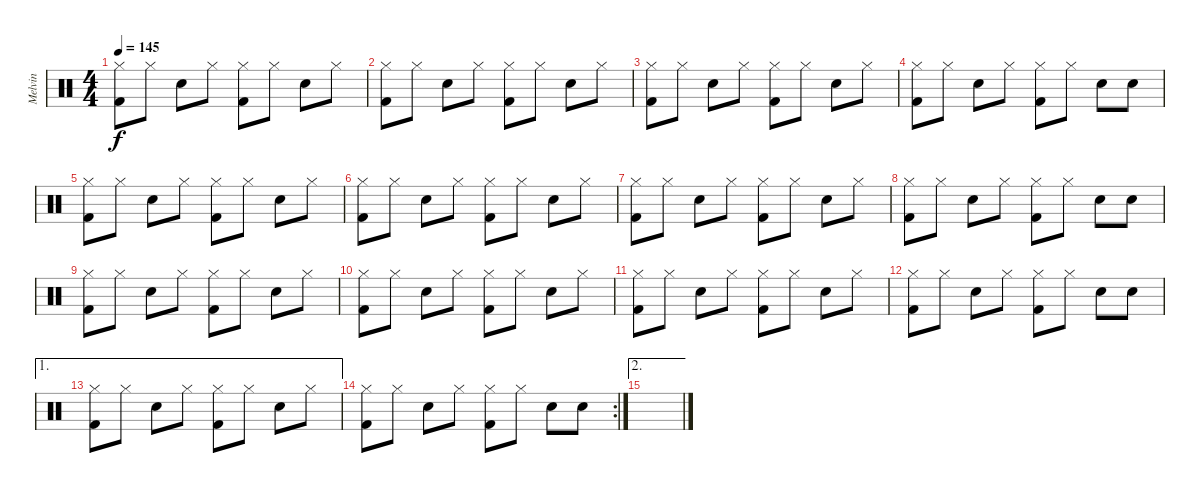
\track ("Melvin" "Melvin") {instrument percussion}
\staff {score}
\articulation defaults
\ts (4 4)
\tempo 145
\clef neutral
\ks c
("Hi-Hat (closed)" "Kick (hit) 2").8{dy f} "Hi-Hat (closed)".8 "Snare (hit) 2".8 "Hi-Hat (closed)".8 ("Hi-Hat (closed)" "Kick (hit) 2").8 "Hi-Hat (closed)".8 "Snare (hit) 2".8 "Hi-Hat (closed)".8 |
("Hi-Hat (closed)" "Kick (hit) 2").8 "Hi-Hat (closed)".8 "Snare (hit) 2".8 "Hi-Hat (closed)".8 ("Hi-Hat (closed)" "Kick (hit) 2").8 "Hi-Hat (closed)".8 "Snare (hit) 2".8 "Hi-Hat (closed)".8 |
("Hi-Hat (closed)" "Kick (hit) 2").8 "Hi-Hat (closed)".8 "Snare (hit) 2".8 "Hi-Hat (closed)".8 ("Hi-Hat (closed)" "Kick (hit) 2").8 "Hi-Hat (closed)".8 "Snare (hit) 2".8 "Hi-Hat (closed)".8 |
("Hi-Hat (closed)" "Kick (hit) 2").8 "Hi-Hat (closed)".8 "Snare (hit) 2".8 "Hi-Hat (closed)".8 ("Hi-Hat (closed)" "Kick (hit) 2").8 "Hi-Hat (closed)".8 "Snare (hit) 2".8 "Snare (hit) 2".8 |
("Hi-Hat (closed)" "Kick (hit) 2").8 "Hi-Hat (closed)".8 "Snare (hit) 2".8 "Hi-Hat (closed)".8 ("Hi-Hat (closed)" "Kick (hit) 2").8 "Hi-Hat (closed)".8 "Snare (hit) 2".8 "Hi-Hat (closed)".8 |
("Hi-Hat (closed)" "Kick (hit) 2").8 "Hi-Hat (closed)".8 "Snare (hit) 2".8 "Hi-Hat (closed)".8 ("Hi-Hat (closed)" "Kick (hit) 2").8 "Hi-Hat (closed)".8 "Snare (hit) 2".8 "Hi-Hat (closed)".8 |
("Hi-Hat (closed)" "Kick (hit) 2").8 "Hi-Hat (closed)".8 "Snare (hit) 2".8 "Hi-Hat (closed)".8 ("Hi-Hat (closed)" "Kick (hit) 2").8 "Hi-Hat (closed)".8 "Snare (hit) 2".8 "Hi-Hat (closed)".8 |
("Hi-Hat (closed)" "Kick (hit) 2").8 "Hi-Hat (closed)".8 "Snare (hit) 2".8 "Hi-Hat (closed)".8 ("Hi-Hat (closed)" "Kick (hit) 2").8 "Hi-Hat (closed)".8 "Snare (hit) 2".8 "Snare (hit) 2".8 |
("Hi-Hat (closed)" "Kick (hit) 2").8 "Hi-Hat (closed)".8 "Snare (hit) 2".8 "Hi-Hat (closed)".8 ("Hi-Hat (closed)" "Kick (hit) 2").8 "Hi-Hat (closed)".8 "Snare (hit) 2".8 "Hi-Hat (closed)".8 |
("Hi-Hat (closed)" "Kick (hit) 2").8 "Hi-Hat (closed)".8 "Snare (hit) 2".8 "Hi-Hat (closed)".8 ("Hi-Hat (closed)" "Kick (hit) 2").8 "Hi-Hat (closed)".8 "Snare (hit) 2".8 "Hi-Hat (closed)".8 |
("Hi-Hat (closed)" "Kick (hit) 2").8 "Hi-Hat (closed)".8 "Snare (hit) 2".8 "Hi-Hat (closed)".8 ("Hi-Hat (closed)" "Kick (hit) 2").8 "Hi-Hat (closed)".8 "Snare (hit) 2".8 "Hi-Hat (closed)".8 |
("Hi-Hat (closed)" "Kick (hit) 2").8 "Hi-Hat (closed)".8 "Snare (hit) 2".8 "Hi-Hat (closed)".8 ("Hi-Hat (closed)" "Kick (hit) 2").8 "Hi-Hat (closed)".8 "Snare (hit) 2".8 "Snare (hit) 2".8 |
\ae 1
("Hi-Hat (closed)" "Kick (hit) 2").8 "Hi-Hat (closed)".8 "Snare (hit) 2".8 "Hi-Hat (closed)".8 ("Hi-Hat (closed)" "Kick (hit) 2").8 "Hi-Hat (closed)".8 "Snare (hit) 2".8 "Hi-Hat (closed)".8 |
\rc 2
("Hi-Hat (closed)" "Kick (hit) 2").8 "Hi-Hat (closed)".8 "Snare (hit) 2".8 "Hi-Hat (closed)".8 ("Hi-Hat (closed)" "Kick (hit) 2").8 "Hi-Hat (closed)".8 "Snare (hit) 2".8 "Snare (hit) 2".8 |
\ae 2
